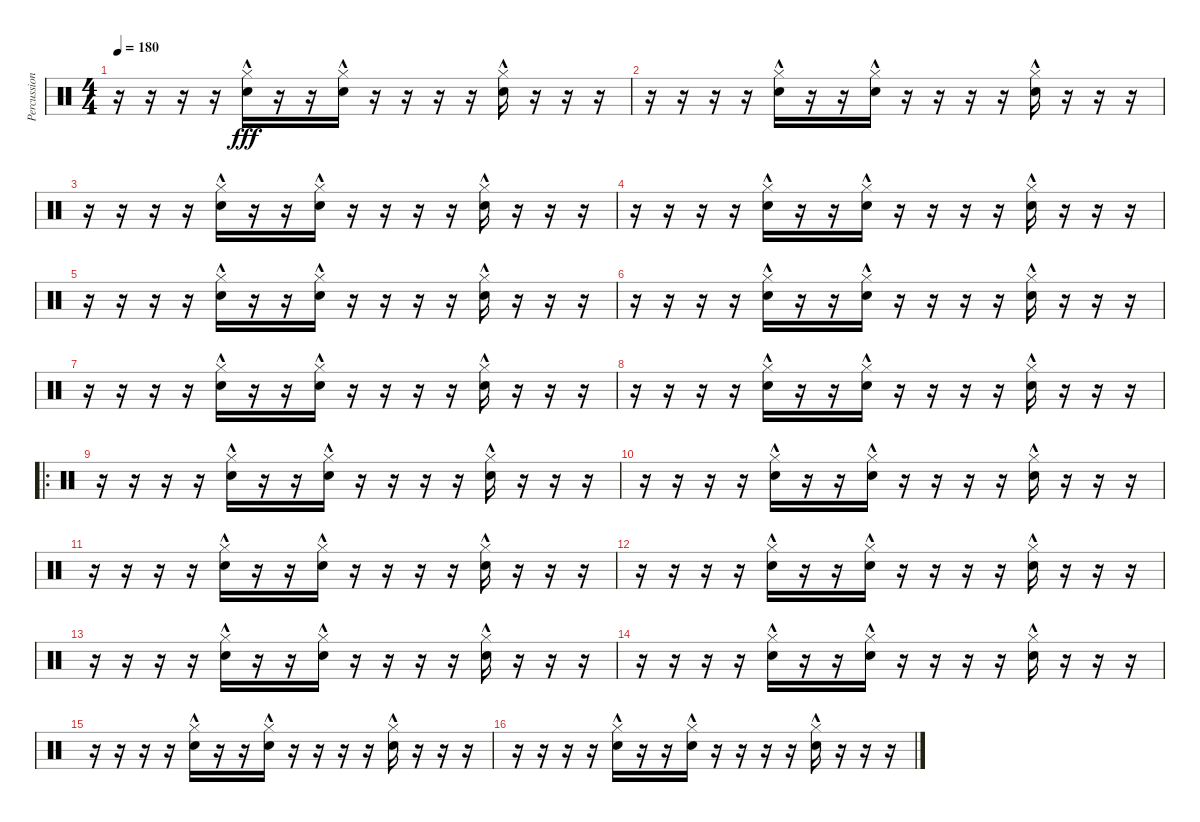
\track ("Percussion" "Percussion") {instrument percussion bank 2}
\staff {score}
\articulation defaults
\ts (4 4)
\tempo 180
\clef neutral
\ks c
r.16{dy fff} r.16 r.16 r.16 ("Hi-Hat (closed)"{hac} "Snare (hit) 2").16 r.16 r.16 ("Hi-Hat (closed)"{hac} "Snare (hit) 2").16 r.16 r.16 r.16 r.16 ("Hi-Hat (closed)"{hac} "Snare (hit) 2").16 r.16 r.16 r.16 |
r.16 r.16 r.16 r.16 ("Hi-Hat (closed)"{hac} "Snare (hit) 2").16 r.16 r.16 ("Hi-Hat (closed)"{hac} "Snare (hit) 2").16 r.16 r.16 r.16 r.16 ("Hi-Hat (closed)"{hac} "Snare (hit) 2").16 r.16 r.16 r.16 |
r.16 r.16 r.16 r.16 ("Hi-Hat (closed)"{hac} "Snare (hit) 2").16 r.16 r.16 ("Hi-Hat (closed)"{hac} "Snare (hit) 2").16 r.16 r.16 r.16 r.16 ("Hi-Hat (closed)"{hac} "Snare (hit) 2").16 r.16 r.16 r.16 |
r.16 r.16 r.16 r.16 ("Hi-Hat (closed)"{hac} "Snare (hit) 2").16 r.16 r.16 ("Hi-Hat (closed)"{hac} "Snare (hit) 2").16 r.16 r.16 r.16 r.16 ("Hi-Hat (closed)"{hac} "Snare (hit) 2").16 r.16 r.16 r.16 |
r.16 r.16 r.16 r.16 ("Hi-Hat (closed)"{hac} "Snare (hit) 2").16 r.16 r.16 ("Hi-Hat (closed)"{hac} "Snare (hit) 2").16 r.16 r.16 r.16 r.16 ("Hi-Hat (closed)"{hac} "Snare (hit) 2").16 r.16 r.16 r.16 |
r.16 r.16 r.16 r.16 ("Hi-Hat (closed)"{hac} "Snare (hit) 2").16 r.16 r.16 ("Hi-Hat (closed)"{hac} "Snare (hit) 2").16 r.16 r.16 r.16 r.16 ("Hi-Hat (closed)"{hac} "Snare (hit) 2").16 r.16 r.16 r.16 |
r.16 r.16 r.16 r.16 ("Hi-Hat (closed)"{hac} "Snare (hit) 2").16 r.16 r.16 ("Hi-Hat (closed)"{hac} "Snare (hit) 2").16 r.16 r.16 r.16 r.16 ("Hi-Hat (closed)"{hac} "Snare (hit) 2").16 r.16 r.16 r.16 |
r.16 r.16 r.16 r.16 ("Hi-Hat (closed)"{hac} "Snare (hit) 2").16 r.16 r.16 ("Hi-Hat (closed)"{hac} "Snare (hit) 2").16 r.16 r.16 r.16 r.16 ("Hi-Hat (closed)"{hac} "Snare (hit) 2").16 r.16 r.16 r.16 |
\ro
r.16 r.16 r.16 r.16 ("Hi-Hat (closed)"{hac} "Snare (hit) 2").16 r.16 r.16 ("Hi-Hat (closed)"{hac} "Snare (hit) 2").16 r.16 r.16 r.16 r.16 ("Hi-Hat (closed)"{hac} "Snare (hit) 2").16 r.16 r.16 r.16 |
r.16 r.16 r.16 r.16 ("Hi-Hat (closed)"{hac} "Snare (hit) 2").16 r.16 r.16 ("Hi-Hat (closed)"{hac} "Snare (hit) 2").16 r.16 r.16 r.16 r.16 ("Hi-Hat (closed)"{hac} "Snare (hit) 2").16 r.16 r.16 r.16 |
r.16 r.16 r.16 r.16 ("Hi-Hat (closed)"{hac} "Snare (hit) 2").16 r.16 r.16 ("Hi-Hat (closed)"{hac} "Snare (hit) 2").16 r.16 r.16 r.16 r.16 ("Hi-Hat (closed)"{hac} "Snare (hit) 2").16 r.16 r.16 r.16 |
r.16 r.16 r.16 r.16 ("Hi-Hat (closed)"{hac} "Snare (hit) 2").16 r.16 r.16 ("Hi-Hat (closed)"{hac} "Snare (hit) 2").16 r.16 r.16 r.16 r.16 ("Hi-Hat (closed)"{hac} "Snare (hit) 2").16 r.16 r.16 r.16 |
r.16 r.16 r.16 r.16 ("Hi-Hat (closed)"{hac} "Snare (hit) 2").16 r.16 r.16 ("Hi-Hat (closed)"{hac} "Snare (hit) 2").16 r.16 r.16 r.16 r.16 ("Hi-Hat (closed)"{hac} "Snare (hit) 2").16 r.16 r.16 r.16 |
r.16 r.16 r.16 r.16 ("Hi-Hat (closed)"{hac} "Snare (hit) 2").16 r.16 r.16 ("Hi-Hat (closed)"{hac} "Snare (hit) 2").16 r.16 r.16 r.16 r.16 ("Hi-Hat (closed)"{hac} "Snare (hit) 2").16 r.16 r.16 r.16 |
r.16 r.16 r.16 r.16 ("Hi-Hat (closed)"{hac} "Snare (hit) 2").16 r.16 r.16 ("Hi-Hat (closed)"{hac} "Snare (hit) 2").16 r.16 r.16 r.16 r.16 ("Hi-Hat (closed)"{hac} "Snare (hit) 2").16 r.16 r.16 r.16 |
r.16 r.16 r.16 r.16 ("Hi-Hat (closed)"{hac} "Snare (hit) 2").16 r.16 r.16 ("Hi-Hat (closed)"{hac} "Snare (hit) 2").16 r.16 r.16 r.16 r.16 ("Hi-Hat (closed)"{hac} "Snare (hit) 2").16 r.16 r.16 r.16
